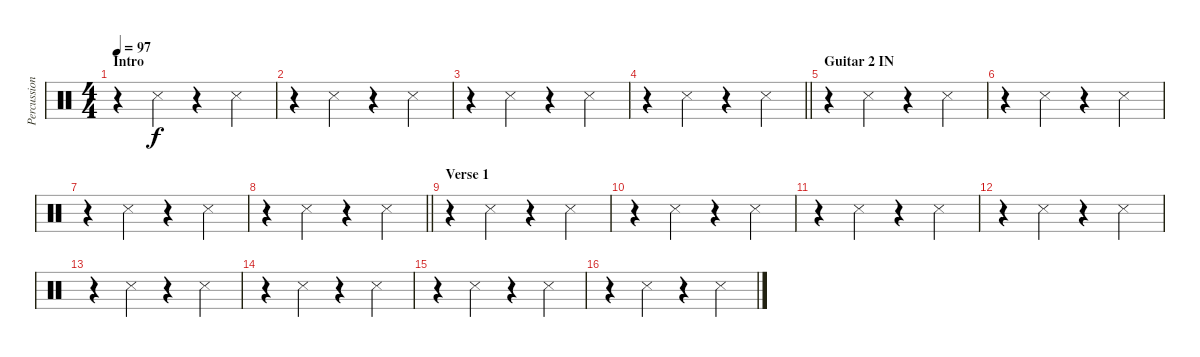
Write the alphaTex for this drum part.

\track ("Percussions" "Percussion") {instrument percussion}
\staff {score}
\articulation defaults
\ts (4 4)
\section ("" "Intro")
\tempo 97
\clef neutral
\ks c
r.4{dy f} "Metronome (hit)".4 r.4 "Metronome (hit)".4 |
r.4 "Metronome (hit)".4 r.4 "Metronome (hit)".4 |
r.4 "Metronome (hit)".4 r.4 "Metronome (hit)".4 |
\barLineRight lightlight
r.4 "Metronome (hit)".4 r.4 "Metronome (hit)".4 |
\section ("" "Guitar 2 IN")
r.4 "Metronome (hit)".4 r.4 "Metronome (hit)".4 |
r.4 "Metronome (hit)".4 r.4 "Metronome (hit)".4 |
r.4 "Metronome (hit)".4 r.4 "Metronome (hit)".4 |
\barLineRight lightlight
r.4 "Metronome (hit)".4 r.4 "Metronome (hit)".4 |
\section ("" "Verse 1")
r.4 "Metronome (hit)".4 r.4 "Metronome (hit)".4 |
r.4 "Metronome (hit)".4 r.4 "Metronome (hit)".4 |
r.4 "Metronome (hit)".4 r.4 "Metronome (hit)".4 |
r.4 "Metronome (hit)".4 r.4 "Metronome (hit)".4 |
r.4 "Metronome (hit)".4 r.4 "Metronome (hit)".4 |
r.4 "Metronome (hit)".4 r.4 "Metronome (hit)".4 |
r.4 "Metronome (hit)".4 r.4 "Metronome (hit)".4 |
r.4 "Metronome (hit)".4 r.4 "Metronome (hit)".4
